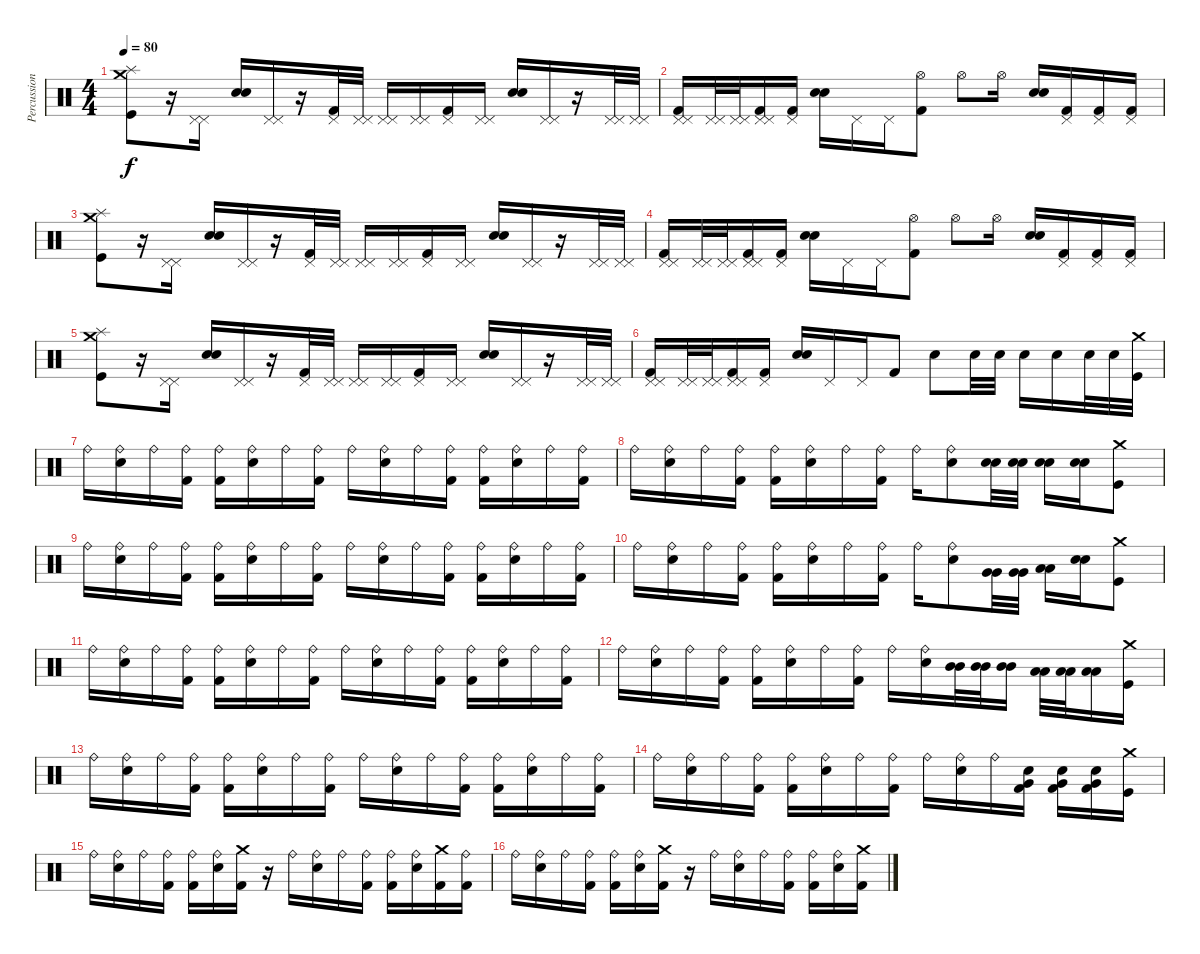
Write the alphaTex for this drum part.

\track ("Percussion" "Percussion") {instrument percussion}
\staff {score}
\articulation defaults
\ts (4 4)
\tempo 80
\clef neutral
\ks c
("Splash (hit)" "Kick (hit)" "Crash medium (hit)").8{dy f} r.16 ("Pedal Hi-Hat (hit)" "Pedal Hi-Hat (hit)").16 ("Electric Snare (hit)" "Electric Snare (hit)").16 ("Pedal Hi-Hat (hit)" "Pedal Hi-Hat (hit)").16 r.16 ("Kick (hit) 2" "Pedal Hi-Hat (hit)").32 ("Pedal Hi-Hat (hit)" "Pedal Hi-Hat (hit)").32 ("Pedal Hi-Hat (hit)" "Pedal Hi-Hat (hit)").16 ("Pedal Hi-Hat (hit)" "Pedal Hi-Hat (hit)").16 ("Kick (hit) 2" "Pedal Hi-Hat (hit)").16 ("Pedal Hi-Hat (hit)" "Pedal Hi-Hat (hit)").16 ("Electric Snare (hit)" "Electric Snare (hit)").16 ("Pedal Hi-Hat (hit)" "Pedal Hi-Hat (hit)").16 r.16 ("Pedal Hi-Hat (hit)" "Pedal Hi-Hat (hit)").32 ("Pedal Hi-Hat (hit)" "Pedal Hi-Hat (hit)").32 |
("Pedal Hi-Hat (hit)" "Pedal Hi-Hat (hit)" "Kick (hit) 2").16 ("Pedal Hi-Hat (hit)" "Pedal Hi-Hat (hit)").32 ("Pedal Hi-Hat (hit)" "Pedal Hi-Hat (hit)").32 ("Pedal Hi-Hat (hit)" "Pedal Hi-Hat (hit)" "Kick (hit) 2").16 ("Pedal Hi-Hat (hit)" "Kick (hit) 2").16 ("Electric Snare (hit)" "Electric Snare (hit)").16 "Pedal Hi-Hat (hit)".16 "Pedal Hi-Hat (hit)".16 ("Kick (hit) 2" "Hi-Hat (open)").8 "Hi-Hat (open)".8 "Hi-Hat (open)".16 ("Electric Snare (hit)" "Electric Snare (hit)").16 ("Pedal Hi-Hat (hit)" "Kick (hit) 2").16 ("Pedal Hi-Hat (hit)" "Kick (hit) 2").16 ("Pedal Hi-Hat (hit)" "Kick (hit) 2").16 |
("Splash (hit)" "Kick (hit)" "Crash medium (hit)").8 r.16 ("Pedal Hi-Hat (hit)" "Pedal Hi-Hat (hit)").16 ("Electric Snare (hit)" "Electric Snare (hit)").16 ("Pedal Hi-Hat (hit)" "Pedal Hi-Hat (hit)").16 r.16 ("Kick (hit) 2" "Pedal Hi-Hat (hit)").32 ("Pedal Hi-Hat (hit)" "Pedal Hi-Hat (hit)").32 ("Pedal Hi-Hat (hit)" "Pedal Hi-Hat (hit)").16 ("Pedal Hi-Hat (hit)" "Pedal Hi-Hat (hit)").16 ("Kick (hit) 2" "Pedal Hi-Hat (hit)").16 ("Pedal Hi-Hat (hit)" "Pedal Hi-Hat (hit)").16 ("Electric Snare (hit)" "Electric Snare (hit)").16 ("Pedal Hi-Hat (hit)" "Pedal Hi-Hat (hit)").16 r.16 ("Pedal Hi-Hat (hit)" "Pedal Hi-Hat (hit)").32 ("Pedal Hi-Hat (hit)" "Pedal Hi-Hat (hit)").32 |
("Pedal Hi-Hat (hit)" "Pedal Hi-Hat (hit)" "Kick (hit) 2").16 ("Pedal Hi-Hat (hit)" "Pedal Hi-Hat (hit)").32 ("Pedal Hi-Hat (hit)" "Pedal Hi-Hat (hit)").32 ("Pedal Hi-Hat (hit)" "Pedal Hi-Hat (hit)" "Kick (hit) 2").16 ("Pedal Hi-Hat (hit)" "Kick (hit) 2").16 ("Electric Snare (hit)" "Electric Snare (hit)").16 "Pedal Hi-Hat (hit)".16 "Pedal Hi-Hat (hit)".16 ("Kick (hit) 2" "Hi-Hat (open)").8 "Hi-Hat (open)".8 "Hi-Hat (open)".16 ("Electric Snare (hit)" "Electric Snare (hit)").16 ("Pedal Hi-Hat (hit)" "Kick (hit) 2").16 ("Pedal Hi-Hat (hit)" "Kick (hit) 2").16 ("Pedal Hi-Hat (hit)" "Kick (hit) 2").16 |
("Splash (hit)" "Kick (hit)" "Crash medium (hit)").8 r.16 ("Pedal Hi-Hat (hit)" "Pedal Hi-Hat (hit)").16 ("Electric Snare (hit)" "Electric Snare (hit)").16 ("Pedal Hi-Hat (hit)" "Pedal Hi-Hat (hit)").16 r.16 ("Kick (hit) 2" "Pedal Hi-Hat (hit)").32 ("Pedal Hi-Hat (hit)" "Pedal Hi-Hat (hit)").32 ("Pedal Hi-Hat (hit)" "Pedal Hi-Hat (hit)").16 ("Pedal Hi-Hat (hit)" "Pedal Hi-Hat (hit)").16 ("Kick (hit) 2" "Pedal Hi-Hat (hit)").16 ("Pedal Hi-Hat (hit)" "Pedal Hi-Hat (hit)").16 ("Electric Snare (hit)" "Electric Snare (hit)").16 ("Pedal Hi-Hat (hit)" "Pedal Hi-Hat (hit)").16 r.16 ("Pedal Hi-Hat (hit)" "Pedal Hi-Hat (hit)").32 ("Pedal Hi-Hat (hit)" "Pedal Hi-Hat (hit)").32 |
("Pedal Hi-Hat (hit)" "Pedal Hi-Hat (hit)" "Kick (hit) 2").16 ("Pedal Hi-Hat (hit)" "Pedal Hi-Hat (hit)").32 ("Pedal Hi-Hat (hit)" "Pedal Hi-Hat (hit)").32 ("Pedal Hi-Hat (hit)" "Pedal Hi-Hat (hit)" "Kick (hit) 2").16 ("Pedal Hi-Hat (hit)" "Kick (hit) 2").16 ("Electric Snare (hit)" "Electric Snare (hit)").16 "Pedal Hi-Hat (hit)".16 "Pedal Hi-Hat (hit)".16 "Kick (hit) 2".8 "Electric Snare (hit)".8 "Electric Snare (hit)".32 "Electric Snare (hit)".32 "Electric Snare (hit)".16 "Electric Snare (hit)".16 "Electric Snare (hit)".32 "Electric Snare (hit)".32 ("Crash medium (hit)" "Kick (hit)").32 |
"Ride (bell)".16 ("Electric Snare (hit)" "Ride (bell)").16 "Ride (bell)".16 ("Kick (hit) 2" "Ride (bell)").16 ("Kick (hit) 2" "Ride (bell)").16 ("Electric Snare (hit)" "Ride (bell)").16 "Ride (bell)".16 ("Kick (hit) 2" "Ride (bell)").16 "Ride (bell)".16 ("Electric Snare (hit)" "Ride (bell)").16 "Ride (bell)".16 ("Kick (hit) 2" "Ride (bell)").16 ("Kick (hit) 2" "Ride (bell)").16 ("Electric Snare (hit)" "Ride (bell)").16 "Ride (bell)".16 ("Kick (hit) 2" "Ride (bell)").16 |
"Ride (bell)".16 ("Electric Snare (hit)" "Ride (bell)").16 "Ride (bell)".16 ("Kick (hit) 2" "Ride (bell)").16 ("Kick (hit) 2" "Ride (bell)").16 ("Electric Snare (hit)" "Ride (bell)").16 "Ride (bell)".16 ("Kick (hit) 2" "Ride (bell)").16 "Ride (bell)".16 ("Electric Snare (hit)" "Ride (bell)").8 ("Electric Snare (hit)" "Electric Snare (hit)").32 ("Electric Snare (hit)" "Electric Snare (hit)").32 ("Electric Snare (hit)" "Electric Snare (hit)").16 ("Electric Snare (hit)" "Electric Snare (hit)").16 ("Kick (hit)" "Crash medium (hit)").8 |
"Ride (bell)".16 ("Electric Snare (hit)" "Ride (bell)").16 "Ride (bell)".16 ("Kick (hit) 2" "Ride (bell)").16 ("Kick (hit) 2" "Ride (bell)").16 ("Electric Snare (hit)" "Ride (bell)").16 "Ride (bell)".16 ("Kick (hit) 2" "Ride (bell)").16 "Ride (bell)".16 ("Electric Snare (hit)" "Ride (bell)").16 "Ride (bell)".16 ("Kick (hit) 2" "Ride (bell)").16 ("Kick (hit) 2" "Ride (bell)").16 ("Electric Snare (hit)" "Ride (bell)").16 "Ride (bell)".16 ("Kick (hit) 2" "Ride (bell)").16 |
"Ride (bell)".16 ("Electric Snare (hit)" "Ride (bell)").16 "Ride (bell)".16 ("Kick (hit) 2" "Ride (bell)").16 ("Kick (hit) 2" "Ride (bell)").16 ("Electric Snare (hit)" "Ride (bell)").16 "Ride (bell)".16 ("Kick (hit) 2" "Ride (bell)").16 "Ride (bell)".16 ("Electric Snare (hit)" "Ride (bell)").8 ("Very Low Tom (hit)" "Very Low Tom (hit)").32 ("Very Low Tom (hit)" "Very Low Tom (hit)").32 ("Low Floor Tom (hit)" "Low Floor Tom (hit)").16 ("Electric Snare (hit)" "Electric Snare (hit)").16 ("Kick (hit)" "Crash medium (hit)").8 |
"Ride (bell)".16 ("Electric Snare (hit)" "Ride (bell)").16 "Ride (bell)".16 ("Kick (hit) 2" "Ride (bell)").16 ("Kick (hit) 2" "Ride (bell)").16 ("Electric Snare (hit)" "Ride (bell)").16 "Ride (bell)".16 ("Kick (hit) 2" "Ride (bell)").16 "Ride (bell)".16 ("Electric Snare (hit)" "Ride (bell)").16 "Ride (bell)".16 ("Kick (hit) 2" "Ride (bell)").16 ("Kick (hit) 2" "Ride (bell)").16 ("Electric Snare (hit)" "Ride (bell)").16 "Ride (bell)".16 ("Kick (hit) 2" "Ride (bell)").16 |
"Ride (bell)".16 ("Electric Snare (hit)" "Ride (bell)").16 "Ride (bell)".16 ("Kick (hit) 2" "Ride (bell)").16 ("Kick (hit) 2" "Ride (bell)").16 ("Electric Snare (hit)" "Ride (bell)").16 "Ride (bell)".16 ("Kick (hit) 2" "Ride (bell)").16 "Ride (bell)".16 ("Electric Snare (hit)" "Ride (bell)").16 ("Mid Tom (hit)" "Mid Tom (hit)").32 ("Mid Tom (hit)" "Mid Tom (hit)").32 ("Mid Tom (hit)" "Mid Tom (hit)").16 ("Low Tom (hit)" "Low Tom (hit)").32 ("Low Tom (hit)" "Low Tom (hit)").32 ("Low Tom (hit)" "Low Tom (hit)").16 ("Crash medium (hit)" "Kick (hit)").16 |
"Ride (bell)".16 ("Electric Snare (hit)" "Ride (bell)").16 "Ride (bell)".16 ("Kick (hit) 2" "Ride (bell)").16 ("Kick (hit) 2" "Ride (bell)").16 ("Electric Snare (hit)" "Ride (bell)").16 "Ride (bell)".16 ("Kick (hit) 2" "Ride (bell)").16 "Ride (bell)".16 ("Electric Snare (hit)" "Ride (bell)").16 "Ride (bell)".16 ("Kick (hit) 2" "Ride (bell)").16 ("Kick (hit) 2" "Ride (bell)").16 ("Electric Snare (hit)" "Ride (bell)").16 "Ride (bell)".16 ("Kick (hit) 2" "Ride (bell)").16 |
"Ride (bell)".16 ("Electric Snare (hit)" "Ride (bell)").16 "Ride (bell)".16 ("Kick (hit) 2" "Ride (bell)").16 ("Kick (hit) 2" "Ride (bell)").16 ("Electric Snare (hit)" "Ride (bell)").16 "Ride (bell)".16 ("Kick (hit) 2" "Ride (bell)").16 "Ride (bell)".16 ("Electric Snare (hit)" "Ride (bell)").16 "Ride (bell)".16 ("Kick (hit) 2" "Very Low Tom (hit)" "Electric Snare (hit)").16 ("Kick (hit) 2" "Very Low Tom (hit)" "Electric Snare (hit)").16 ("Kick (hit) 2" "Very Low Tom (hit)" "Electric Snare (hit)").16 ("Crash medium (hit)" "Kick (hit)").16 |
"Ride (bell)".16 ("Electric Snare (hit)" "Ride (bell)").16 "Ride (bell)".16 ("Kick (hit) 2" "Ride (bell)").16 ("Kick (hit) 2" "Ride (bell)").16 ("Electric Snare (hit)" "Ride (bell)").16 ("Kick (hit) 2" "Crash medium (hit)").16 r.16 "Ride (bell)".16 ("Electric Snare (hit)" "Ride (bell)").16 "Ride (bell)".16 ("Kick (hit) 2" "Ride (bell)").16 ("Kick (hit) 2" "Ride (bell)").16 ("Electric Snare (hit)" "Ride (bell)").16 ("Kick (hit) 2" "Crash medium (hit)").16 ("Kick (hit) 2" "Ride (bell)").16 |
"Ride (bell)".16 ("Electric Snare (hit)" "Ride (bell)").16 "Ride (bell)".16 ("Kick (hit) 2" "Ride (bell)").16 ("Kick (hit) 2" "Ride (bell)").16 ("Electric Snare (hit)" "Ride (bell)").16 ("Kick (hit) 2" "Crash medium (hit)").16 r.16 "Ride (bell)".16 ("Electric Snare (hit)" "Ride (bell)").16 "Ride (bell)".16 ("Kick (hit) 2" "Ride (bell)").16 ("Kick (hit) 2" "Ride (bell)").16 ("Electric Snare (hit)" "Ride (bell)").16 ("Kick (hit) 2" "Crash medium (hit)").16
